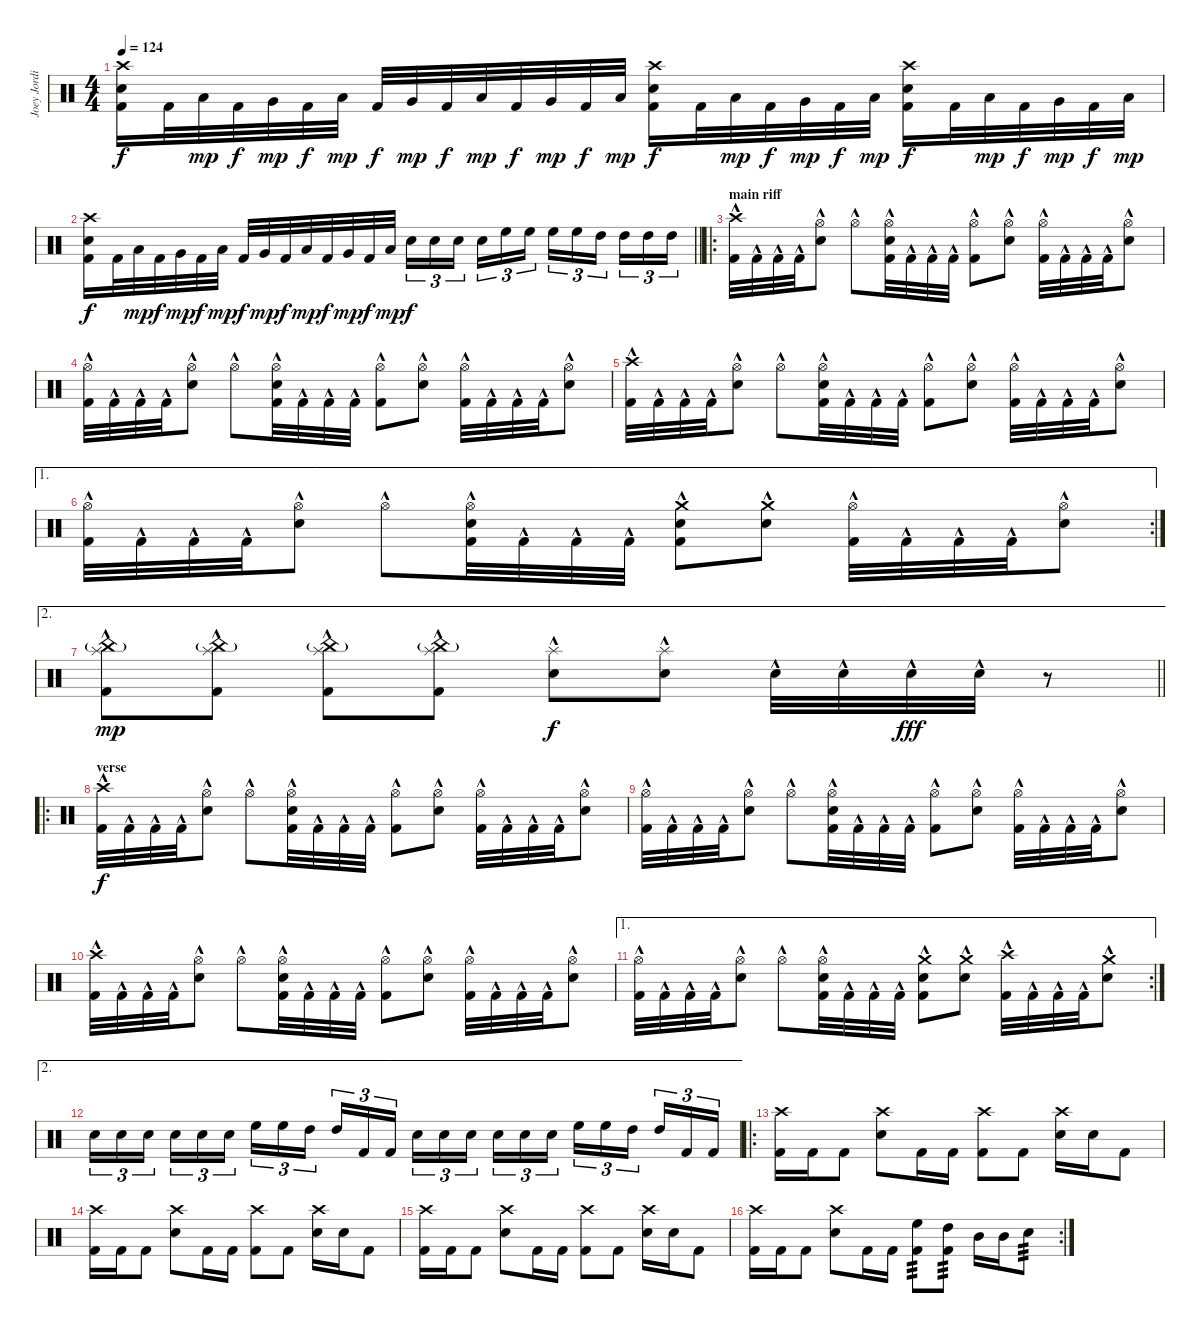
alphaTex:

\track ("Joey Jordison" "Joey Jordi") {instrument percussion}
\staff
\articulation defaults
\ts (4 4)
\tempo 124
\clef neutral
\ks c
("Crash high (hit)" "Electric Snare (hit)" "Kick (hit) 2").16{dy f} "Kick (hit) 2".32 "Low Tom (hit)".32{dy mp} "Kick (hit) 2".32{dy f} "Very Low Tom (hit)".32{dy mp} "Kick (hit) 2".32{dy f} "Low Tom (hit)".32{dy mp} "Kick (hit) 2".32{dy f} "Very Low Tom (hit)".32{dy mp} "Kick (hit) 2".32{dy f} "Low Tom (hit)".32{dy mp} "Kick (hit) 2".32{dy f} "Very Low Tom (hit)".32{dy mp} "Kick (hit) 2".32{dy f} "Low Tom (hit)".32{dy mp} ("Crash high (hit)" "Electric Snare (hit)" "Kick (hit) 2").16{dy f} "Kick (hit) 2".32 "Low Tom (hit)".32{dy mp} "Kick (hit) 2".32{dy f} "Very Low Tom (hit)".32{dy mp} "Kick (hit) 2".32{dy f} "Low Tom (hit)".32{dy mp} ("Crash high (hit)" "Electric Snare (hit)" "Kick (hit) 2").16{dy f} "Kick (hit) 2".32 "Low Tom (hit)".32{dy mp} "Kick (hit) 2".32{dy f} "Very Low Tom (hit)".32{dy mp} "Kick (hit) 2".32{dy f} "Low Tom (hit)".32{dy mp} |
\barLineRight lightlight
("Crash high (hit)" "Electric Snare (hit)" "Kick (hit) 2").16{dy f} "Kick (hit) 2".32 "Low Tom (hit)".32{dy mp} "Kick (hit) 2".32{dy f} "Very Low Tom (hit)".32{dy mp} "Kick (hit) 2".32{dy f} "Low Tom (hit)".32{dy mp} "Kick (hit) 2".32{dy f} "Very Low Tom (hit)".32{dy mp} "Kick (hit) 2".32{dy f} "Low Tom (hit)".32{dy mp} "Kick (hit) 2".32{dy f} "Very Low Tom (hit)".32{dy mp} "Kick (hit) 2".32{dy f} "Low Tom (hit)".32{dy mp} "Electric Snare (hit)".16{tu (3 2) dy f} "Electric Snare (hit)".16{tu (3 2)} "Electric Snare (hit)".16{tu (3 2) beam splitsecondary} "Electric Snare (hit)".16{tu (3 2)} "High Floor Tom (hit)".16{tu (3 2)} "High Floor Tom (hit)".16{tu (3 2)} "High Floor Tom (hit)".16{tu (3 2)} "High Floor Tom (hit)".16{tu (3 2)} "High Tom (hit)".16{tu (3 2) beam splitsecondary} "High Tom (hit)".16{tu (3 2)} "High Tom (hit)".16{tu (3 2)} "High Tom (hit)".16{tu (3 2)} |
\ro
\section ("" "main riff")
("Crash high (hit)"{hac} "Kick (hit) 2"{hac}).32 "Kick (hit) 2"{hac}.32 "Kick (hit) 2"{hac}.32 "Kick (hit) 2"{hac}.32 ("Hi-Hat (open)"{hac} "Electric Snare (hit)"{hac}).8 "Hi-Hat (open)"{hac}.8 ("Hi-Hat (open)"{hac} "Electric Snare (hit)"{hac} "Kick (hit) 2"{hac}).32 "Kick (hit) 2"{hac}.32 "Kick (hit) 2"{hac}.32 "Kick (hit) 2"{hac}.32 ("Hi-Hat (open)"{hac} "Kick (hit) 2"{hac}).8 ("Hi-Hat (open)"{hac} "Electric Snare (hit)"{hac}).8 ("Hi-Hat (open)"{hac} "Kick (hit) 2"{hac}).32 "Kick (hit) 2"{hac}.32 "Kick (hit) 2"{hac}.32 "Kick (hit) 2"{hac}.32 ("Hi-Hat (open)"{hac} "Electric Snare (hit)"{hac}).8 |
("Hi-Hat (open)"{hac} "Kick (hit) 2"{hac}).32 "Kick (hit) 2"{hac}.32 "Kick (hit) 2"{hac}.32 "Kick (hit) 2"{hac}.32 ("Hi-Hat (open)"{hac} "Electric Snare (hit)"{hac}).8 "Hi-Hat (open)"{hac}.8 ("Hi-Hat (open)"{hac} "Electric Snare (hit)"{hac} "Kick (hit) 2"{hac}).32 "Kick (hit) 2"{hac}.32 "Kick (hit) 2"{hac}.32 "Kick (hit) 2"{hac}.32 ("Hi-Hat (open)"{hac} "Kick (hit) 2"{hac}).8 ("Hi-Hat (open)"{hac} "Electric Snare (hit)"{hac}).8 ("Hi-Hat (open)"{hac} "Kick (hit) 2"{hac}).32 "Kick (hit) 2"{hac}.32 "Kick (hit) 2"{hac}.32 "Kick (hit) 2"{hac}.32 ("Hi-Hat (open)"{hac} "Electric Snare (hit)"{hac}).8 |
("Crash high (hit)"{hac} "Kick (hit) 2"{hac}).32 "Kick (hit) 2"{hac}.32 "Kick (hit) 2"{hac}.32 "Kick (hit) 2"{hac}.32 ("Hi-Hat (open)"{hac} "Electric Snare (hit)"{hac}).8 "Hi-Hat (open)"{hac}.8 ("Hi-Hat (open)"{hac} "Electric Snare (hit)"{hac} "Kick (hit) 2"{hac}).32 "Kick (hit) 2"{hac}.32 "Kick (hit) 2"{hac}.32 "Kick (hit) 2"{hac}.32 ("Hi-Hat (open)"{hac} "Kick (hit) 2"{hac}).8 ("Hi-Hat (open)"{hac} "Electric Snare (hit)"{hac}).8 ("Hi-Hat (open)"{hac} "Kick (hit) 2"{hac}).32 "Kick (hit) 2"{hac}.32 "Kick (hit) 2"{hac}.32 "Kick (hit) 2"{hac}.32 ("Hi-Hat (open)"{hac} "Electric Snare (hit)"{hac}).8 |
\ae 1
\rc 2
("Hi-Hat (open)"{hac} "Kick (hit) 2"{hac}).32 "Kick (hit) 2"{hac}.32 "Kick (hit) 2"{hac}.32 "Kick (hit) 2"{hac}.32 ("Hi-Hat (open)"{hac} "Electric Snare (hit)"{hac}).8 "Hi-Hat (open)"{hac}.8 ("Hi-Hat (open)"{hac} "Electric Snare (hit)"{hac} "Kick (hit) 2"{hac}).32 "Kick (hit) 2"{hac}.32 "Kick (hit) 2"{hac}.32 "Kick (hit) 2"{hac}.32 ("Crash medium (hit)"{hac} "Electric Snare (hit)" "Kick (hit) 2"{hac}).8 ("Crash medium (hit)"{hac} "Electric Snare (hit)"{hac}).8 ("Hi-Hat (open)"{hac} "Kick (hit) 2"{hac}).32 "Kick (hit) 2"{hac}.32 "Kick (hit) 2"{hac}.32 "Kick (hit) 2"{hac}.32 ("Hi-Hat (open)"{hac} "Electric Snare (hit)"{hac}).8 |
\ae 2
\barLineRight lightlight
("China (hit)"{g} "Splash (hit)" "Kick (hit) 2"{hac}).8{dy mp} ("China (hit)"{g} "Splash (hit)" "Kick (hit) 2"{hac}).8 ("China (hit)"{g} "Splash (hit)" "Kick (hit) 2"{hac}).8 ("China (hit)"{g} "Splash (hit)" "Kick (hit) 2"{hac}).8 ("Splash (hit)"{hac} "Electric Snare (hit)"{hac}).8{dy f} ("Splash (hit)"{hac} "Electric Snare (hit)"{hac}).8 "Electric Snare (hit)"{hac}.32 "Electric Snare (hit)"{hac}.32 "Electric Snare (hit)"{hac}.32{dy fff} "Electric Snare (hit)"{hac}.32 r.8 |
\ro
\section ("" "verse")
("Crash high (hit)"{hac} "Kick (hit) 2"{hac}).32{dy f} "Kick (hit) 2"{hac}.32 "Kick (hit) 2"{hac}.32 "Kick (hit) 2"{hac}.32 ("Hi-Hat (open)"{hac} "Electric Snare (hit)"{hac}).8 "Hi-Hat (open)"{hac}.8 ("Hi-Hat (open)"{hac} "Electric Snare (hit)"{hac} "Kick (hit) 2"{hac}).32 "Kick (hit) 2"{hac}.32 "Kick (hit) 2"{hac}.32 "Kick (hit) 2"{hac}.32 ("Hi-Hat (open)"{hac} "Kick (hit) 2"{hac}).8 ("Hi-Hat (open)"{hac} "Electric Snare (hit)"{hac}).8 ("Hi-Hat (open)"{hac} "Kick (hit) 2"{hac}).32 "Kick (hit) 2"{hac}.32 "Kick (hit) 2"{hac}.32 "Kick (hit) 2"{hac}.32 ("Hi-Hat (open)"{hac} "Electric Snare (hit)"{hac}).8 |
("Hi-Hat (open)"{hac} "Kick (hit) 2"{hac}).32 "Kick (hit) 2"{hac}.32 "Kick (hit) 2"{hac}.32 "Kick (hit) 2"{hac}.32 ("Hi-Hat (open)"{hac} "Electric Snare (hit)"{hac}).8 "Hi-Hat (open)"{hac}.8 ("Hi-Hat (open)"{hac} "Electric Snare (hit)"{hac} "Kick (hit) 2"{hac}).32 "Kick (hit) 2"{hac}.32 "Kick (hit) 2"{hac}.32 "Kick (hit) 2"{hac}.32 ("Hi-Hat (open)"{hac} "Kick (hit) 2"{hac}).8 ("Hi-Hat (open)"{hac} "Electric Snare (hit)"{hac}).8 ("Hi-Hat (open)"{hac} "Kick (hit) 2"{hac}).32 "Kick (hit) 2"{hac}.32 "Kick (hit) 2"{hac}.32 "Kick (hit) 2"{hac}.32 ("Hi-Hat (open)"{hac} "Electric Snare (hit)"{hac}).8 |
("Crash high (hit)"{hac} "Kick (hit) 2"{hac}).32 "Kick (hit) 2"{hac}.32 "Kick (hit) 2"{hac}.32 "Kick (hit) 2"{hac}.32 ("Hi-Hat (open)"{hac} "Electric Snare (hit)"{hac}).8 "Hi-Hat (open)"{hac}.8 ("Hi-Hat (open)"{hac} "Electric Snare (hit)"{hac} "Kick (hit) 2"{hac}).32 "Kick (hit) 2"{hac}.32 "Kick (hit) 2"{hac}.32 "Kick (hit) 2"{hac}.32 ("Hi-Hat (open)"{hac} "Kick (hit) 2"{hac}).8 ("Hi-Hat (open)"{hac} "Electric Snare (hit)"{hac}).8 ("Hi-Hat (open)"{hac} "Kick (hit) 2"{hac}).32 "Kick (hit) 2"{hac}.32 "Kick (hit) 2"{hac}.32 "Kick (hit) 2"{hac}.32 ("Hi-Hat (open)"{hac} "Electric Snare (hit)"{hac}).8 |
\ae 1
\rc 2
("Hi-Hat (open)"{hac} "Kick (hit) 2"{hac}).32 "Kick (hit) 2"{hac}.32 "Kick (hit) 2"{hac}.32 "Kick (hit) 2"{hac}.32 ("Hi-Hat (open)"{hac} "Electric Snare (hit)"{hac}).8 "Hi-Hat (open)"{hac}.8 ("Hi-Hat (open)"{hac} "Electric Snare (hit)"{hac} "Kick (hit) 2"{hac}).32 "Kick (hit) 2"{hac}.32 "Kick (hit) 2"{hac}.32 "Kick (hit) 2"{hac}.32 ("Crash medium (hit)"{hac} "Electric Snare (hit)" "Kick (hit) 2"{hac}).8 ("Crash medium (hit)"{hac} "Electric Snare (hit)"{hac}).8 ("Crash high (hit)"{hac} "Kick (hit) 2"{hac}).32 "Kick (hit) 2"{hac}.32 "Kick (hit) 2"{hac}.32 "Kick (hit) 2"{hac}.32 ("Crash medium (hit)"{hac} "Electric Snare (hit)"{hac}).8 |
\ae 2 "Electric Snare (hit)".16{tu (3 2)} "Electric Snare (hit)".16{tu (3 2)} "Electric Snare (hit)".16{tu (3 2) beam splitsecondary} "Electric Snare (hit)".16{tu (3 2)} "Electric Snare (hit)".16{tu (3 2)} "Electric Snare (hit)".16{tu (3 2)} "High Floor Tom (hit)".16{tu (3 2)} "High Floor Tom (hit)".16{tu (3 2)} "High Tom (hit)".16{tu (3 2) beam splitsecondary} "High Tom (hit)".16{tu (3 2)} "Kick (hit) 2".16{tu (3 2)} "Kick (hit) 2".16{tu (3 2)} "Electric Snare (hit)".16{tu (3 2)} "Electric Snare (hit)".16{tu (3 2)} "Electric Snare (hit)".16{tu (3 2) beam splitsecondary} "Electric Snare (hit)".16{tu (3 2)} "Electric Snare (hit)".16{tu (3 2)} "Electric Snare (hit)".16{tu (3 2)} "High Floor Tom (hit)".16{tu (3 2)} "High Floor Tom (hit)".16{tu (3 2)} "High Tom (hit)".16{tu (3 2) beam splitsecondary} "High Tom (hit)".16{tu (3 2)} "Kick (hit) 2".16{tu (3 2)} "Kick (hit) 2".16{tu (3 2)}
|
\ro
("Crash high (hit)" "Kick (hit) 2").16 "Kick (hit) 2".16 "Kick (hit) 2".8 ("Crash high (hit)" "Electric Snare (hit)").8 "Kick (hit) 2".16 "Kick (hit) 2".16 ("Crash high (hit)" "Kick (hit) 2").8 "Kick (hit) 2".8 ("Crash high (hit)" "Electric Snare (hit)").16 "Electric Snare (hit)".16 "Kick (hit) 2".8 |
("Crash high (hit)" "Kick (hit) 2").16 "Kick (hit) 2".16 "Kick (hit) 2".8 ("Crash high (hit)" "Electric Snare (hit)").8 "Kick (hit) 2".16 "Kick (hit) 2".16 ("Crash high (hit)" "Kick (hit) 2").8 "Kick (hit) 2".8 ("Crash high (hit)" "Electric Snare (hit)").16 "Electric Snare (hit)".16 "Kick (hit) 2".8 |
("Crash high (hit)" "Kick (hit) 2").16 "Kick (hit) 2".16 "Kick (hit) 2".8 ("Crash high (hit)" "Electric Snare (hit)").8 "Kick (hit) 2".16 "Kick (hit) 2".16 ("Crash high (hit)" "Kick (hit) 2").8 "Kick (hit) 2".8 ("Crash high (hit)" "Electric Snare (hit)").16 "Electric Snare (hit)".16 "Kick (hit) 2".8 |
\rc 2
("Crash high (hit)" "Kick (hit) 2").16 "Kick (hit) 2".16 "Kick (hit) 2".8 ("Crash high (hit)" "Electric Snare (hit)").8 "Kick (hit) 2".16 "Kick (hit) 2".16 ("High Floor Tom (hit)" "Kick (hit) 2").8{tp 3} ("High Tom (hit)" "Kick (hit) 2").8{tp 3} "Mid Tom (hit)".16 "Mid Tom (hit)".16 "Electric Snare (hit)".8{tp 3}
